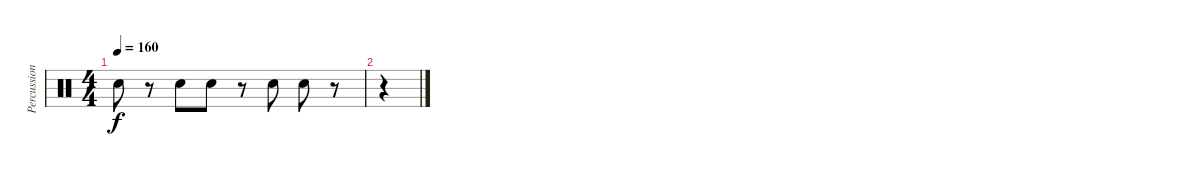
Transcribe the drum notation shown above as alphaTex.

\track ("Percussion" "Percussion") {instrument percussion}
\staff {score}
\articulation defaults
\ts (4 4)
\tempo 160
\clef neutral
\ks c "Electric Snare (hit)".8{dy f}
r.8 "Electric Snare (hit)".8 "Electric Snare (hit)".8 r.8 "Electric Snare (hit)".8 "Electric Snare (hit)".8 r.8 |
r.4
